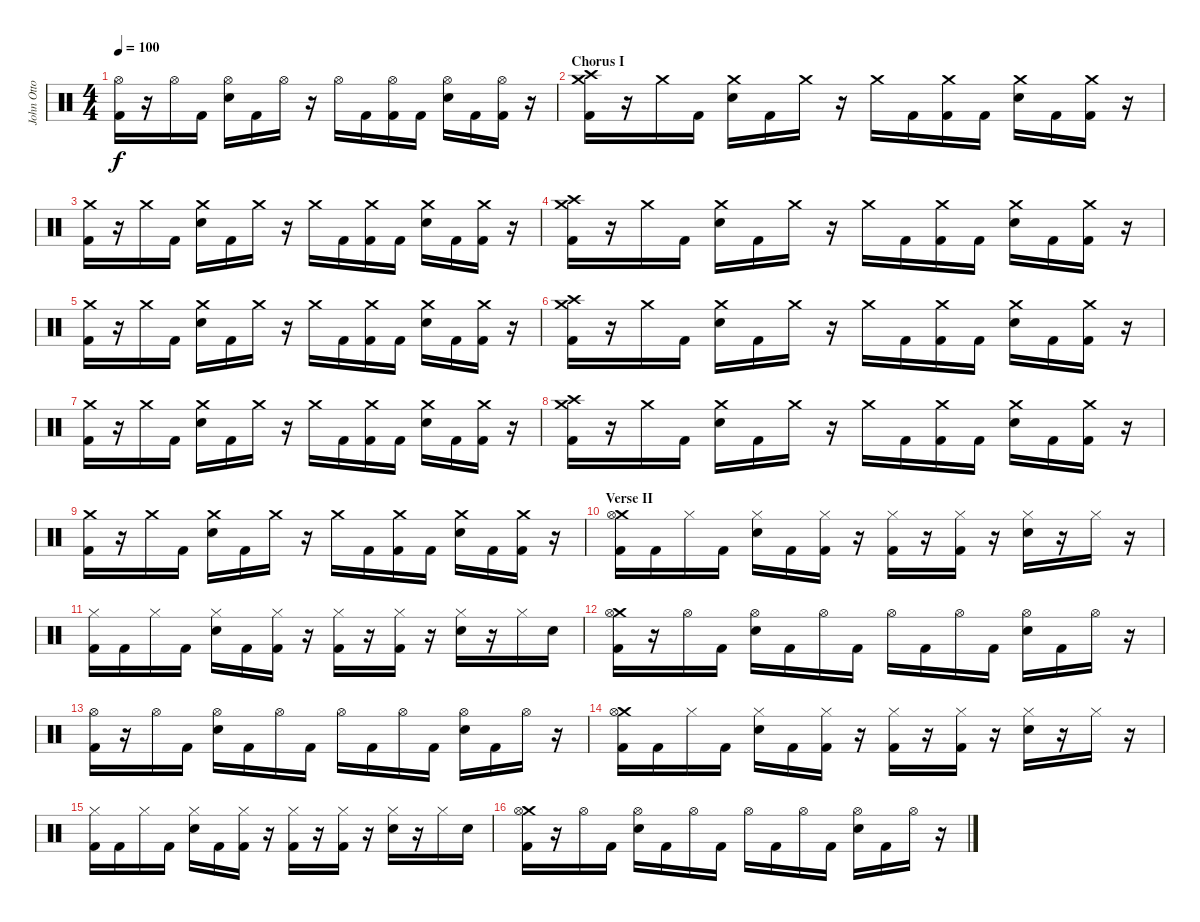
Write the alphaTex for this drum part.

\track ("John Otto - Drums" "John Otto ") {instrument percussion}
\staff {score}
\articulation defaults
\ts (4 4)
\tempo 100
\clef neutral
\ks c
("Hi-Hat (open)" "Kick (hit) 2").16{dy f} r.16 "Hi-Hat (open)".16 "Kick (hit) 2".16 ("Hi-Hat (open)" "Snare (hit) 2").16 "Kick (hit) 2".16 "Hi-Hat (open)".16 r.16 "Hi-Hat (open)".16 "Kick (hit) 2".16 ("Hi-Hat (open)" "Kick (hit) 2").16 "Kick (hit) 2".16 ("Hi-Hat (open)" "Snare (hit) 2").16 "Kick (hit) 2".16 ("Hi-Hat (open)" "Kick (hit) 2").16 r.16 |
\section ("" "Chorus I")
("Crash medium (hit)" "Crash high (hit)" "Kick (hit) 2").16 r.16 "Crash medium (hit)".16 "Kick (hit) 2".16 ("Crash medium (hit)" "Snare (hit) 2").16 "Kick (hit) 2".16 "Crash medium (hit)".16 r.16 "Crash medium (hit)".16 "Kick (hit) 2".16 ("Crash medium (hit)" "Kick (hit) 2").16 "Kick (hit) 2".16 ("Crash medium (hit)" "Snare (hit) 2").16 "Kick (hit) 2".16 ("Crash medium (hit)" "Kick (hit) 2").16 r.16 |
("Crash medium (hit)" "Kick (hit) 2").16 r.16 "Crash medium (hit)".16 "Kick (hit) 2".16 ("Crash medium (hit)" "Snare (hit) 2").16 "Kick (hit) 2".16 "Crash medium (hit)".16 r.16 "Crash medium (hit)".16 "Kick (hit) 2".16 ("Crash medium (hit)" "Kick (hit) 2").16 "Kick (hit) 2".16 ("Crash medium (hit)" "Snare (hit) 2").16 "Kick (hit) 2".16 ("Crash medium (hit)" "Kick (hit) 2").16 r.16 |
("Crash medium (hit)" "Crash high (hit)" "Kick (hit) 2").16 r.16 "Crash medium (hit)".16 "Kick (hit) 2".16 ("Crash medium (hit)" "Snare (hit) 2").16 "Kick (hit) 2".16 "Crash medium (hit)".16 r.16 "Crash medium (hit)".16 "Kick (hit) 2".16 ("Crash medium (hit)" "Kick (hit) 2").16 "Kick (hit) 2".16 ("Crash medium (hit)" "Snare (hit) 2").16 "Kick (hit) 2".16 ("Crash medium (hit)" "Kick (hit) 2").16 r.16 |
("Crash medium (hit)" "Kick (hit) 2").16 r.16 "Crash medium (hit)".16 "Kick (hit) 2".16 ("Crash medium (hit)" "Snare (hit) 2").16 "Kick (hit) 2".16 "Crash medium (hit)".16 r.16 "Crash medium (hit)".16 "Kick (hit) 2".16 ("Crash medium (hit)" "Kick (hit) 2").16 "Kick (hit) 2".16 ("Crash medium (hit)" "Snare (hit) 2").16 "Kick (hit) 2".16 ("Crash medium (hit)" "Kick (hit) 2").16 r.16 |
("Crash medium (hit)" "Crash high (hit)" "Kick (hit) 2").16 r.16 "Crash medium (hit)".16 "Kick (hit) 2".16 ("Crash medium (hit)" "Snare (hit) 2").16 "Kick (hit) 2".16 "Crash medium (hit)".16 r.16 "Crash medium (hit)".16 "Kick (hit) 2".16 ("Crash medium (hit)" "Kick (hit) 2").16 "Kick (hit) 2".16 ("Crash medium (hit)" "Snare (hit) 2").16 "Kick (hit) 2".16 ("Crash medium (hit)" "Kick (hit) 2").16 r.16 |
("Crash medium (hit)" "Kick (hit) 2").16 r.16 "Crash medium (hit)".16 "Kick (hit) 2".16 ("Crash medium (hit)" "Snare (hit) 2").16 "Kick (hit) 2".16 "Crash medium (hit)".16 r.16 "Crash medium (hit)".16 "Kick (hit) 2".16 ("Crash medium (hit)" "Kick (hit) 2").16 "Kick (hit) 2".16 ("Crash medium (hit)" "Snare (hit) 2").16 "Kick (hit) 2".16 ("Crash medium (hit)" "Kick (hit) 2").16 r.16 |
("Crash medium (hit)" "Crash high (hit)" "Kick (hit) 2").16 r.16 "Crash medium (hit)".16 "Kick (hit) 2".16 ("Crash medium (hit)" "Snare (hit) 2").16 "Kick (hit) 2".16 "Crash medium (hit)".16 r.16 "Crash medium (hit)".16 "Kick (hit) 2".16 ("Crash medium (hit)" "Kick (hit) 2").16 "Kick (hit) 2".16 ("Crash medium (hit)" "Snare (hit) 2").16 "Kick (hit) 2".16 ("Crash medium (hit)" "Kick (hit) 2").16 r.16 |
("Crash medium (hit)" "Kick (hit) 2").16 r.16 "Crash medium (hit)".16 "Kick (hit) 2".16 ("Crash medium (hit)" "Snare (hit) 2").16 "Kick (hit) 2".16 "Crash medium (hit)".16 r.16 "Crash medium (hit)".16 "Kick (hit) 2".16 ("Crash medium (hit)" "Kick (hit) 2").16 "Kick (hit) 2".16 ("Crash medium (hit)" "Snare (hit) 2").16 "Kick (hit) 2".16 ("Crash medium (hit)" "Kick (hit) 2").16 r.16 |
\section ("" "Verse II")
("Crash medium (hit)" "Hi-Hat (open)" "Kick (hit) 2").16 "Kick (hit) 2".16 "Hi-Hat (closed)".16 "Kick (hit) 2".16 ("Hi-Hat (closed)" "Snare (hit) 2").16 "Kick (hit) 2".16 ("Hi-Hat (closed)" "Kick (hit) 2").16 r.16 ("Hi-Hat (closed)" "Kick (hit) 2").16 r.16 ("Hi-Hat (closed)" "Kick (hit) 2").16 r.16 ("Hi-Hat (closed)" "Snare (hit) 2").16 r.16 "Hi-Hat (closed)".16 r.16 |
("Hi-Hat (closed)" "Kick (hit) 2").16 "Kick (hit) 2".16 "Hi-Hat (closed)".16 "Kick (hit) 2".16 ("Hi-Hat (closed)" "Snare (hit) 2").16 "Kick (hit) 2".16 ("Hi-Hat (closed)" "Kick (hit) 2").16 r.16 ("Hi-Hat (closed)" "Kick (hit) 2").16 r.16 ("Hi-Hat (closed)" "Kick (hit) 2").16 r.16 ("Hi-Hat (closed)" "Snare (hit) 2").16 r.16 "Hi-Hat (closed)".16 "Snare (hit) 2".16 |
("Crash medium (hit)" "Hi-Hat (open)" "Kick (hit) 2").16 r.16 "Hi-Hat (open)".16 "Kick (hit) 2".16 ("Hi-Hat (open)" "Snare (hit) 2").16 "Kick (hit) 2".16 "Hi-Hat (open)".16 "Kick (hit) 2".16 "Hi-Hat (open)".16 "Kick (hit) 2".16 "Hi-Hat (open)".16 "Kick (hit) 2".16 ("Hi-Hat (open)" "Snare (hit) 2").16 "Kick (hit) 2".16 "Hi-Hat (open)".16 r.16 |
("Hi-Hat (open)" "Kick (hit) 2").16 r.16 "Hi-Hat (open)".16 "Kick (hit) 2".16 ("Hi-Hat (open)" "Snare (hit) 2").16 "Kick (hit) 2".16 "Hi-Hat (open)".16 "Kick (hit) 2".16 "Hi-Hat (open)".16 "Kick (hit) 2".16 "Hi-Hat (open)".16 "Kick (hit) 2".16 ("Hi-Hat (open)" "Snare (hit) 2").16 "Kick (hit) 2".16 "Hi-Hat (open)".16 r.16 |
("Crash medium (hit)" "Hi-Hat (open)" "Kick (hit) 2").16 "Kick (hit) 2".16 "Hi-Hat (closed)".16 "Kick (hit) 2".16 ("Hi-Hat (closed)" "Snare (hit) 2").16 "Kick (hit) 2".16 ("Hi-Hat (closed)" "Kick (hit) 2").16 r.16 ("Hi-Hat (closed)" "Kick (hit) 2").16 r.16 ("Hi-Hat (closed)" "Kick (hit) 2").16 r.16 ("Hi-Hat (closed)" "Snare (hit) 2").16 r.16 "Hi-Hat (closed)".16 r.16 |
("Hi-Hat (closed)" "Kick (hit) 2").16 "Kick (hit) 2".16 "Hi-Hat (closed)".16 "Kick (hit) 2".16 ("Hi-Hat (closed)" "Snare (hit) 2").16 "Kick (hit) 2".16 ("Hi-Hat (closed)" "Kick (hit) 2").16 r.16 ("Hi-Hat (closed)" "Kick (hit) 2").16 r.16 ("Hi-Hat (closed)" "Kick (hit) 2").16 r.16 ("Hi-Hat (closed)" "Snare (hit) 2").16 r.16 "Hi-Hat (closed)".16 "Snare (hit) 2".16 |
("Crash medium (hit)" "Hi-Hat (open)" "Kick (hit) 2").16 r.16 "Hi-Hat (open)".16 "Kick (hit) 2".16 ("Hi-Hat (open)" "Snare (hit) 2").16 "Kick (hit) 2".16 "Hi-Hat (open)".16 "Kick (hit) 2".16 "Hi-Hat (open)".16 "Kick (hit) 2".16 "Hi-Hat (open)".16 "Kick (hit) 2".16 ("Hi-Hat (open)" "Snare (hit) 2").16 "Kick (hit) 2".16 "Hi-Hat (open)".16 r.16
